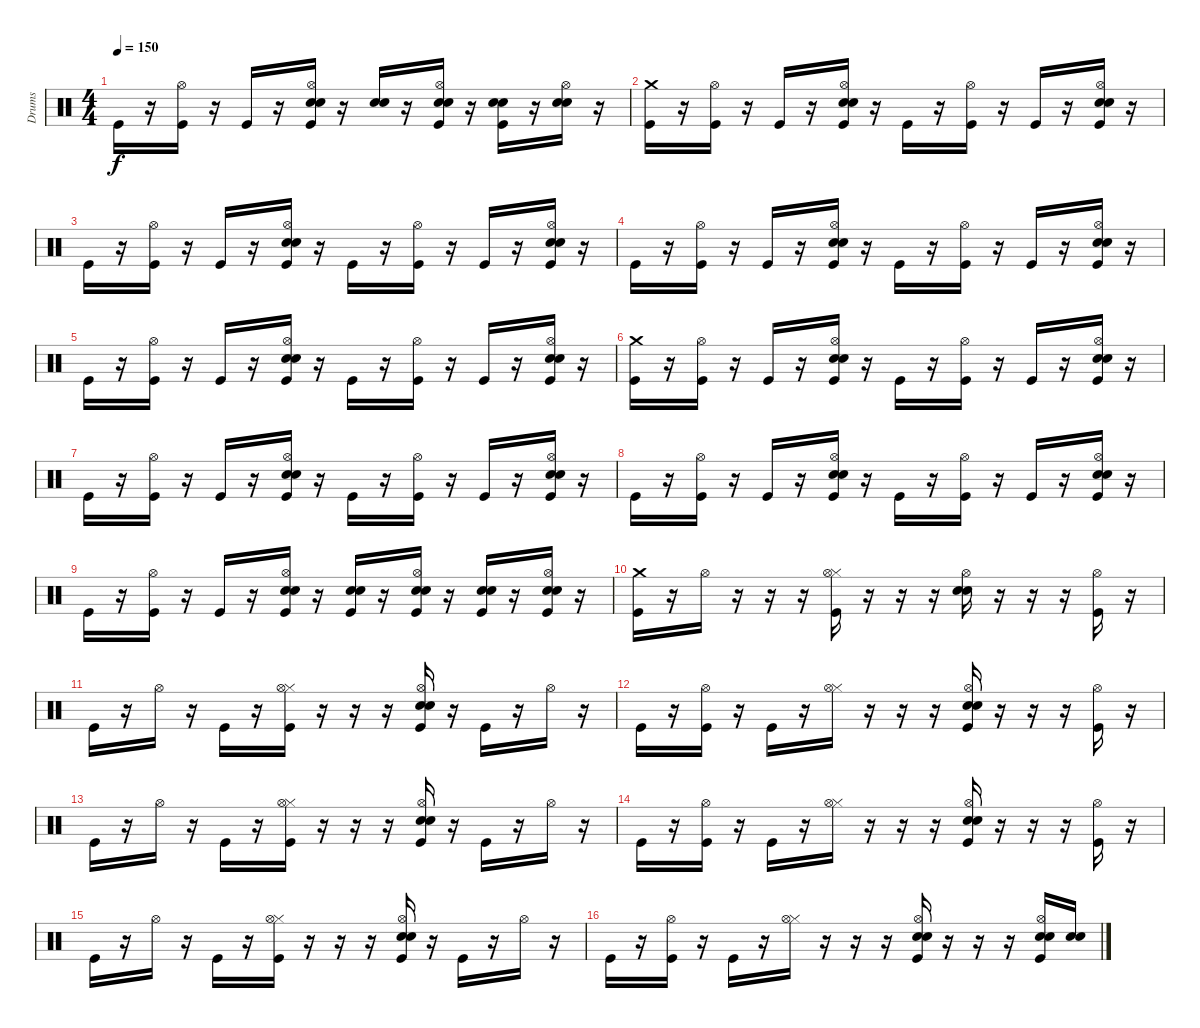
\track ("Drums" "Drums") {instrument percussion}
\staff {score}
\articulation defaults
\ts (4 4)
\tempo 150
\clef neutral
\ks c "Kick (hit)".16{dy f}
r.16 ("Kick (hit)" "Hi-Hat (open)").16 r.16 "Kick (hit)".16 r.16 ("Electric Snare (hit)" "Snare (hit) 2" "Kick (hit)" "Hi-Hat (open)").16 r.16 ("Electric Snare (hit)" "Snare (hit) 2").16 r.16 ("Electric Snare (hit)" "Snare (hit) 2" "Kick (hit)" "Hi-Hat (open)").16 r.16 ("Electric Snare (hit)" "Snare (hit) 2" "Kick (hit)").16 r.16 ("Electric Snare (hit)" "Snare (hit) 2" "Hi-Hat (open)").16 r.16 |
("Kick (hit)" "Crash medium (hit)").16 r.16 ("Kick (hit)" "Hi-Hat (open)").16 r.16 "Kick (hit)".16 r.16 ("Snare (hit) 2" "Electric Snare (hit)" "Kick (hit)" "Hi-Hat (open)").16 r.16 "Kick (hit)".16 r.16 ("Kick (hit)" "Hi-Hat (open)").16 r.16 "Kick (hit)".16 r.16 ("Snare (hit) 2" "Electric Snare (hit)" "Kick (hit)" "Hi-Hat (open)").16 r.16 |
"Kick (hit)".16 r.16 ("Kick (hit)" "Hi-Hat (open)").16 r.16 "Kick (hit)".16 r.16 ("Snare (hit) 2" "Electric Snare (hit)" "Kick (hit)" "Hi-Hat (open)").16 r.16 "Kick (hit)".16 r.16 ("Kick (hit)" "Hi-Hat (open)").16 r.16 "Kick (hit)".16 r.16 ("Snare (hit) 2" "Electric Snare (hit)" "Kick (hit)" "Hi-Hat (open)").16 r.16 |
"Kick (hit)".16 r.16 ("Kick (hit)" "Hi-Hat (open)").16 r.16 "Kick (hit)".16 r.16 ("Snare (hit) 2" "Electric Snare (hit)" "Kick (hit)" "Hi-Hat (open)").16 r.16 "Kick (hit)".16 r.16 ("Kick (hit)" "Hi-Hat (open)").16 r.16 "Kick (hit)".16 r.16 ("Snare (hit) 2" "Electric Snare (hit)" "Kick (hit)" "Hi-Hat (open)").16 r.16 |
"Kick (hit)".16 r.16 ("Kick (hit)" "Hi-Hat (open)").16 r.16 "Kick (hit)".16 r.16 ("Snare (hit) 2" "Electric Snare (hit)" "Kick (hit)" "Hi-Hat (open)").16 r.16 "Kick (hit)".16 r.16 ("Kick (hit)" "Hi-Hat (open)").16 r.16 "Kick (hit)".16 r.16 ("Snare (hit) 2" "Electric Snare (hit)" "Kick (hit)" "Hi-Hat (open)").16 r.16 |
("Kick (hit)" "Crash medium (hit)").16 r.16 ("Kick (hit)" "Hi-Hat (open)").16 r.16 "Kick (hit)".16 r.16 ("Snare (hit) 2" "Electric Snare (hit)" "Kick (hit)" "Hi-Hat (open)").16 r.16 "Kick (hit)".16 r.16 ("Kick (hit)" "Hi-Hat (open)").16 r.16 "Kick (hit)".16 r.16 ("Snare (hit) 2" "Electric Snare (hit)" "Kick (hit)" "Hi-Hat (open)").16 r.16 |
"Kick (hit)".16 r.16 ("Kick (hit)" "Hi-Hat (open)").16 r.16 "Kick (hit)".16 r.16 ("Snare (hit) 2" "Electric Snare (hit)" "Kick (hit)" "Hi-Hat (open)").16 r.16 "Kick (hit)".16 r.16 ("Kick (hit)" "Hi-Hat (open)").16 r.16 "Kick (hit)".16 r.16 ("Snare (hit) 2" "Electric Snare (hit)" "Kick (hit)" "Hi-Hat (open)").16 r.16 |
"Kick (hit)".16 r.16 ("Kick (hit)" "Hi-Hat (open)").16 r.16 "Kick (hit)".16 r.16 ("Snare (hit) 2" "Electric Snare (hit)" "Kick (hit)" "Hi-Hat (open)").16 r.16 "Kick (hit)".16 r.16 ("Kick (hit)" "Hi-Hat (open)").16 r.16 "Kick (hit)".16 r.16 ("Snare (hit) 2" "Electric Snare (hit)" "Kick (hit)" "Hi-Hat (open)").16 r.16 |
"Kick (hit)".16 r.16 ("Kick (hit)" "Hi-Hat (open)").16 r.16 "Kick (hit)".16 r.16 ("Snare (hit) 2" "Electric Snare (hit)" "Kick (hit)" "Hi-Hat (open)").16 r.16 ("Electric Snare (hit)" "Snare (hit) 2" "Kick (hit)").16 r.16 ("Electric Snare (hit)" "Snare (hit) 2" "Kick (hit)" "Hi-Hat (open)").16 r.16 ("Electric Snare (hit)" "Snare (hit) 2" "Kick (hit)").16 r.16 ("Snare (hit) 2" "Electric Snare (hit)" "Kick (hit)" "Hi-Hat (open)").16 r.16 |
("Kick (hit)" "Crash medium (hit)").16 r.16 "Hi-Hat (open)".16 r.16 r.16 r.16 ("Hi-Hat (closed)" "Kick (hit)" "Hi-Hat (open)").16 r.16 r.16 r.16 ("Electric Snare (hit)" "Snare (hit) 2" "Hi-Hat (open)").16 r.16 r.16 r.16 ("Kick (hit)" "Hi-Hat (open)").16 r.16 |
"Kick (hit)".16 r.16 "Hi-Hat (open)".16 r.16 "Kick (hit)".16 r.16 ("Hi-Hat (closed)" "Kick (hit)" "Hi-Hat (open)").16 r.16 r.16 r.16 ("Electric Snare (hit)" "Snare (hit) 2" "Kick (hit)" "Hi-Hat (open)").16 r.16 "Kick (hit)".16 r.16 "Hi-Hat (open)".16 r.16 |
"Kick (hit)".16 r.16 ("Kick (hit)" "Hi-Hat (open)").16 r.16 "Kick (hit)".16 r.16 ("Hi-Hat (closed)" "Hi-Hat (open)").16 r.16 r.16 r.16 ("Electric Snare (hit)" "Snare (hit) 2" "Kick (hit)" "Hi-Hat (open)").16 r.16 r.16 r.16 ("Kick (hit)" "Hi-Hat (open)").16 r.16 |
"Kick (hit)".16 r.16 "Hi-Hat (open)".16 r.16 "Kick (hit)".16 r.16 ("Hi-Hat (closed)" "Kick (hit)" "Hi-Hat (open)").16 r.16 r.16 r.16 ("Electric Snare (hit)" "Snare (hit) 2" "Kick (hit)" "Hi-Hat (open)").16 r.16 "Kick (hit)".16 r.16 "Hi-Hat (open)".16 r.16 |
"Kick (hit)".16 r.16 ("Kick (hit)" "Hi-Hat (open)").16 r.16 "Kick (hit)".16 r.16 ("Hi-Hat (closed)" "Hi-Hat (open)").16 r.16 r.16 r.16 ("Electric Snare (hit)" "Snare (hit) 2" "Kick (hit)" "Hi-Hat (open)").16 r.16 r.16 r.16 ("Kick (hit)" "Hi-Hat (open)").16 r.16 |
"Kick (hit)".16 r.16 "Hi-Hat (open)".16 r.16 "Kick (hit)".16 r.16 ("Hi-Hat (closed)" "Kick (hit)" "Hi-Hat (open)").16 r.16 r.16 r.16 ("Electric Snare (hit)" "Snare (hit) 2" "Kick (hit)" "Hi-Hat (open)").16 r.16 "Kick (hit)".16 r.16 "Hi-Hat (open)".16 r.16 |
"Kick (hit)".16 r.16 ("Kick (hit)" "Hi-Hat (open)").16 r.16 "Kick (hit)".16 r.16 ("Hi-Hat (closed)" "Hi-Hat (open)").16 r.16 r.16 r.16 ("Electric Snare (hit)" "Snare (hit) 2" "Kick (hit)" "Hi-Hat (open)").16 r.16 r.16 r.16 ("Electric Snare (hit)" "Snare (hit) 2" "Kick (hit)" "Hi-Hat (open)").16 ("Electric Snare (hit)" "Snare (hit) 2").16
